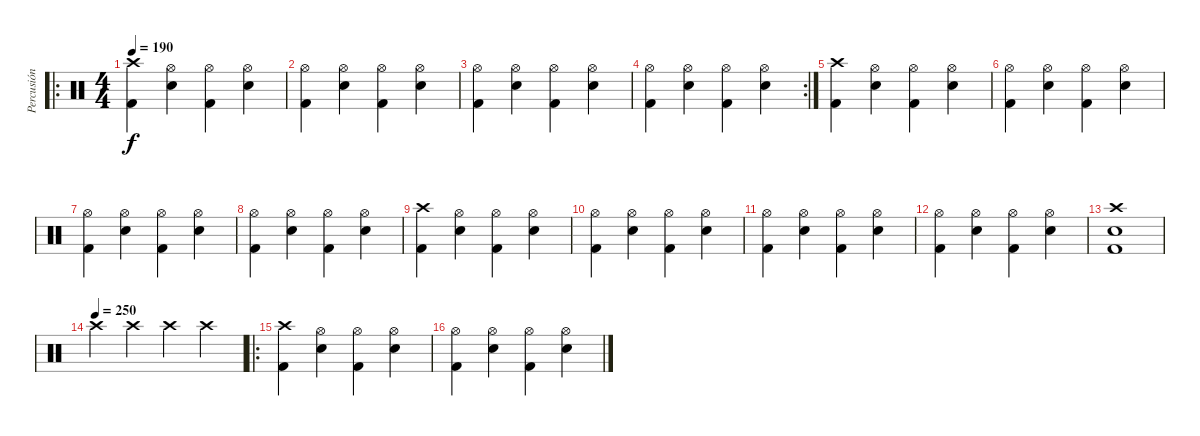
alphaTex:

\track ("Percusión" "Percusión") {instrument percussion}
\staff {score}
\articulation defaults
\ro
\ts (4 4)
\tempo 190
\clef neutral
\ks c
("Kick (hit) 2" "Crash high (hit)").4{dy f} ("Snare (hit) 2" "Hi-Hat (open)").4 ("Kick (hit) 2" "Hi-Hat (open)").4 ("Snare (hit) 2" "Hi-Hat (open)").4 |
("Kick (hit) 2" "Hi-Hat (open)").4 ("Snare (hit) 2" "Hi-Hat (open)").4 ("Kick (hit) 2" "Hi-Hat (open)").4 ("Snare (hit) 2" "Hi-Hat (open)").4 |
("Kick (hit) 2" "Hi-Hat (open)").4 ("Snare (hit) 2" "Hi-Hat (open)").4 ("Kick (hit) 2" "Hi-Hat (open)").4 ("Snare (hit) 2" "Hi-Hat (open)").4 |
\rc 2
("Kick (hit) 2" "Hi-Hat (open)").4 ("Snare (hit) 2" "Hi-Hat (open)").4 ("Kick (hit) 2" "Hi-Hat (open)").4 ("Snare (hit) 2" "Hi-Hat (open)").4 |
("Kick (hit) 2" "Crash high (hit)").4 ("Snare (hit) 2" "Hi-Hat (open)").4 ("Kick (hit) 2" "Hi-Hat (open)").4 ("Snare (hit) 2" "Hi-Hat (open)").4 |
("Kick (hit) 2" "Hi-Hat (open)").4 ("Snare (hit) 2" "Hi-Hat (open)").4 ("Kick (hit) 2" "Hi-Hat (open)").4 ("Snare (hit) 2" "Hi-Hat (open)").4 |
("Kick (hit) 2" "Hi-Hat (open)").4 ("Snare (hit) 2" "Hi-Hat (open)").4 ("Kick (hit) 2" "Hi-Hat (open)").4 ("Snare (hit) 2" "Hi-Hat (open)").4 |
("Kick (hit) 2" "Hi-Hat (open)").4 ("Snare (hit) 2" "Hi-Hat (open)").4 ("Kick (hit) 2" "Hi-Hat (open)").4 ("Snare (hit) 2" "Hi-Hat (open)").4 |
("Kick (hit) 2" "Crash high (hit)").4 ("Snare (hit) 2" "Hi-Hat (open)").4 ("Kick (hit) 2" "Hi-Hat (open)").4 ("Snare (hit) 2" "Hi-Hat (open)").4 |
("Kick (hit) 2" "Hi-Hat (open)").4 ("Snare (hit) 2" "Hi-Hat (open)").4 ("Kick (hit) 2" "Hi-Hat (open)").4 ("Snare (hit) 2" "Hi-Hat (open)").4 |
("Kick (hit) 2" "Hi-Hat (open)").4 ("Snare (hit) 2" "Hi-Hat (open)").4 ("Kick (hit) 2" "Hi-Hat (open)").4 ("Snare (hit) 2" "Hi-Hat (open)").4 |
("Kick (hit) 2" "Hi-Hat (open)").4 ("Snare (hit) 2" "Hi-Hat (open)").4 ("Kick (hit) 2" "Hi-Hat (open)").4 ("Snare (hit) 2" "Hi-Hat (open)").4 |
("Kick (hit) 2" "Snare (hit) 2" "Crash high (hit)").1 |
\tempo (250)
"Crash high (hit)".4 "Crash high (hit)".4 "Crash high (hit)".4 "Crash high (hit)".4 |
\ro
("Kick (hit) 2" "Crash high (hit)").4 ("Snare (hit) 2" "Hi-Hat (open)").4 ("Kick (hit) 2" "Hi-Hat (open)").4 ("Snare (hit) 2" "Hi-Hat (open)").4 |
("Kick (hit) 2" "Hi-Hat (open)").4 ("Snare (hit) 2" "Hi-Hat (open)").4 ("Kick (hit) 2" "Hi-Hat (open)").4 ("Snare (hit) 2" "Hi-Hat (open)").4
